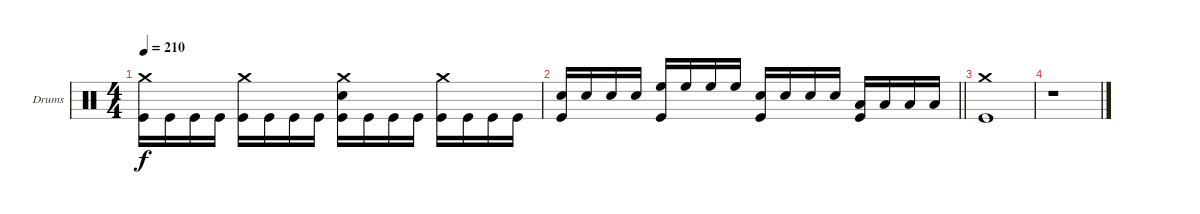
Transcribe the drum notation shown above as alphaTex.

\bracketExtendMode groupsimilarinstruments
\firstSystemTrackNameOrientation horizontal
\otherSystemsTrackNameOrientation horizontal
\track ("Drumkit" "Drums") {instrument percussion}
\staff {score}
\articulation defaults
\ts (4 4)
\tempo 210
\clef neutral
\ks c
("Crash medium (hit)" "Kick (hit)").16{dy f} "Kick (hit)".16 "Kick (hit)".16 "Kick (hit)".16 ("Crash medium (hit)" "Kick (hit)").16 "Kick (hit)".16 "Kick (hit)".16 "Kick (hit)".16 ("Crash medium (hit)" "Snare (hit) 2" "Kick (hit)").16 "Kick (hit)".16 "Kick (hit)".16 "Kick (hit)".16 ("Crash medium (hit)" "Kick (hit)").16 "Kick (hit)".16 "Kick (hit)".16 "Kick (hit)".16 |
\barLineRight lightlight
("Snare (hit) 2" "Kick (hit)").16 "Snare (hit) 2".16 "Snare (hit) 2".16 "Snare (hit) 2".16 ("High Floor Tom (hit)" "Kick (hit)").16 "High Floor Tom (hit)".16 "High Floor Tom (hit)".16 "High Floor Tom (hit)".16 ("Snare (hit) 2" "Kick (hit)").16 "Snare (hit) 2".16 "Snare (hit) 2".16 "Snare (hit) 2".16 ("Low Tom (hit)" "Kick (hit)").16 "Low Tom (hit)".16 "Low Tom (hit)".16 "Low Tom (hit)".16 |
("Crash medium (hit)" "Kick (hit)").1 |
r.1
